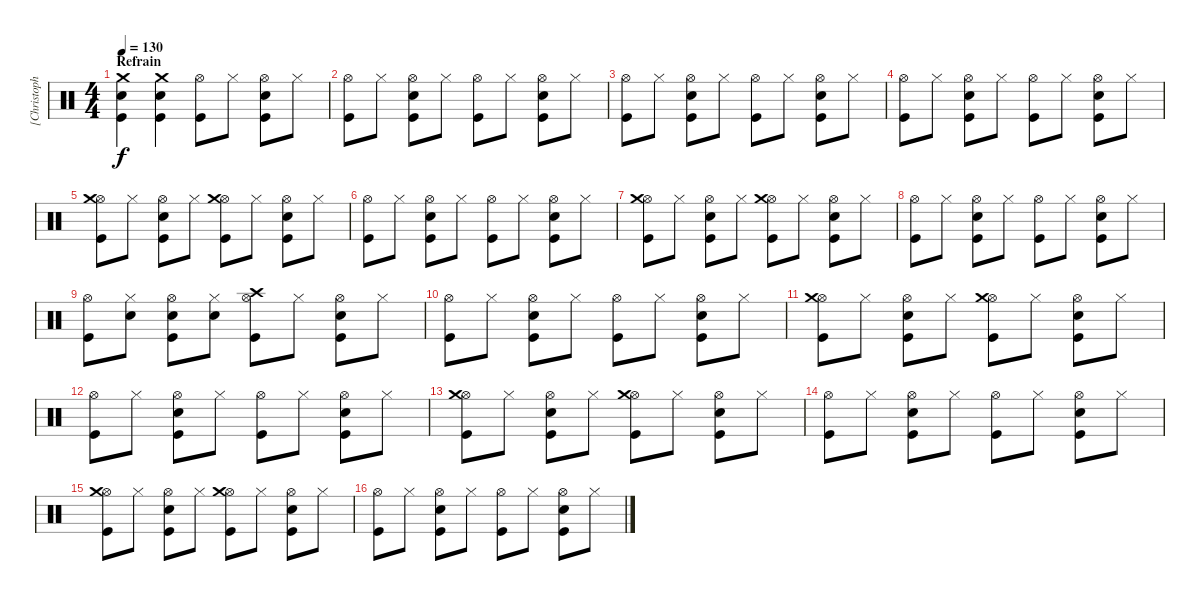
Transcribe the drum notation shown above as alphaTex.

\track ("[Christoph Schneider]  Drums" "[Christoph") {instrument percussion}
\staff {score}
\articulation defaults
\ts (4 4)
\section ("" "Refrain")
\tempo 130
\clef neutral
\ks c
("Crash medium (hit)" "Snare (hit) 2" "Kick (hit)").4{dy f} ("Crash medium (hit)" "Snare (hit) 2" "Kick (hit)").4 ("Hi-Hat (open)" "Kick (hit)").8 "Hi-Hat (closed)".8 ("Hi-Hat (open)" "Snare (hit) 2" "Kick (hit)").8 "Hi-Hat (closed)".8 |
("Hi-Hat (open)" "Kick (hit)").8 "Hi-Hat (closed)".8 ("Hi-Hat (open)" "Snare (hit) 2" "Kick (hit)").8 "Hi-Hat (closed)".8 ("Hi-Hat (open)" "Kick (hit)").8 "Hi-Hat (closed)".8 ("Hi-Hat (open)" "Snare (hit) 2" "Kick (hit)").8 "Hi-Hat (closed)".8 |
("Hi-Hat (open)" "Kick (hit)").8 "Hi-Hat (closed)".8 ("Hi-Hat (open)" "Snare (hit) 2" "Kick (hit)").8 "Hi-Hat (closed)".8 ("Hi-Hat (open)" "Kick (hit)").8 "Hi-Hat (closed)".8 ("Hi-Hat (open)" "Snare (hit) 2" "Kick (hit)").8 "Hi-Hat (closed)".8 |
("Hi-Hat (open)" "Kick (hit)").8 "Hi-Hat (closed)".8 ("Hi-Hat (open)" "Snare (hit) 2" "Kick (hit)").8 "Hi-Hat (closed)".8 ("Hi-Hat (open)" "Kick (hit)").8 "Hi-Hat (closed)".8 ("Hi-Hat (open)" "Snare (hit) 2" "Kick (hit)").8 "Hi-Hat (closed)".8 |
("Hi-Hat (open)" "Crash medium (hit)" "Kick (hit)").8 "Hi-Hat (closed)".8 ("Hi-Hat (open)" "Snare (hit) 2" "Kick (hit)").8 "Hi-Hat (closed)".8 ("Hi-Hat (open)" "Crash medium (hit)" "Kick (hit)").8 "Hi-Hat (closed)".8 ("Hi-Hat (open)" "Snare (hit) 2" "Kick (hit)").8 "Hi-Hat (closed)".8 |
("Hi-Hat (open)" "Kick (hit)").8 "Hi-Hat (closed)".8 ("Hi-Hat (open)" "Snare (hit) 2" "Kick (hit)").8 "Hi-Hat (closed)".8 ("Hi-Hat (open)" "Kick (hit)").8 "Hi-Hat (closed)".8 ("Hi-Hat (open)" "Snare (hit) 2" "Kick (hit)").8 "Hi-Hat (closed)".8 |
("Hi-Hat (open)" "Crash medium (hit)" "Kick (hit)").8 "Hi-Hat (closed)".8 ("Hi-Hat (open)" "Snare (hit) 2" "Kick (hit)").8 "Hi-Hat (closed)".8 ("Hi-Hat (open)" "Crash medium (hit)" "Kick (hit)").8 "Hi-Hat (closed)".8 ("Hi-Hat (open)" "Snare (hit) 2" "Kick (hit)").8 "Hi-Hat (closed)".8 |
("Hi-Hat (open)" "Kick (hit)").8 "Hi-Hat (closed)".8 ("Hi-Hat (open)" "Snare (hit) 2" "Kick (hit)").8 "Hi-Hat (closed)".8 ("Hi-Hat (open)" "Kick (hit)").8 "Hi-Hat (closed)".8 ("Hi-Hat (open)" "Snare (hit) 2" "Kick (hit)").8 "Hi-Hat (closed)".8 |
("Hi-Hat (open)" "Kick (hit)").8 ("Snare (hit) 2" "Hi-Hat (closed)").8 ("Hi-Hat (open)" "Snare (hit) 2" "Kick (hit)").8 ("Snare (hit) 2" "Hi-Hat (closed)").8 ("Hi-Hat (open)" "Crash high (hit)" "Kick (hit)").8 "Hi-Hat (closed)".8 ("Hi-Hat (open)" "Snare (hit) 2" "Kick (hit)").8 "Hi-Hat (closed)".8 |
("Hi-Hat (open)" "Kick (hit)").8 "Hi-Hat (closed)".8 ("Hi-Hat (open)" "Snare (hit) 2" "Kick (hit)").8 "Hi-Hat (closed)".8 ("Hi-Hat (open)" "Kick (hit)").8 "Hi-Hat (closed)".8 ("Hi-Hat (open)" "Snare (hit) 2" "Kick (hit)").8 "Hi-Hat (closed)".8 |
("Hi-Hat (open)" "Crash medium (hit)" "Kick (hit)").8 "Hi-Hat (closed)".8 ("Hi-Hat (open)" "Snare (hit) 2" "Kick (hit)").8 "Hi-Hat (closed)".8 ("Hi-Hat (open)" "Crash medium (hit)" "Kick (hit)").8 "Hi-Hat (closed)".8 ("Hi-Hat (open)" "Snare (hit) 2" "Kick (hit)").8 "Hi-Hat (closed)".8 |
("Hi-Hat (open)" "Kick (hit)").8 "Hi-Hat (closed)".8 ("Hi-Hat (open)" "Snare (hit) 2" "Kick (hit)").8 "Hi-Hat (closed)".8 ("Hi-Hat (open)" "Kick (hit)").8 "Hi-Hat (closed)".8 ("Hi-Hat (open)" "Snare (hit) 2" "Kick (hit)").8 "Hi-Hat (closed)".8 |
("Hi-Hat (open)" "Crash medium (hit)" "Kick (hit)").8 "Hi-Hat (closed)".8 ("Hi-Hat (open)" "Snare (hit) 2" "Kick (hit)").8 "Hi-Hat (closed)".8 ("Hi-Hat (open)" "Crash medium (hit)" "Kick (hit)").8 "Hi-Hat (closed)".8 ("Hi-Hat (open)" "Snare (hit) 2" "Kick (hit)").8 "Hi-Hat (closed)".8 |
("Hi-Hat (open)" "Kick (hit)").8 "Hi-Hat (closed)".8 ("Hi-Hat (open)" "Snare (hit) 2" "Kick (hit)").8 "Hi-Hat (closed)".8 ("Hi-Hat (open)" "Kick (hit)").8 "Hi-Hat (closed)".8 ("Hi-Hat (open)" "Snare (hit) 2" "Kick (hit)").8 "Hi-Hat (closed)".8 |
("Hi-Hat (open)" "Crash medium (hit)" "Kick (hit)").8 "Hi-Hat (closed)".8 ("Hi-Hat (open)" "Snare (hit) 2" "Kick (hit)").8 "Hi-Hat (closed)".8 ("Hi-Hat (open)" "Crash medium (hit)" "Kick (hit)").8 "Hi-Hat (closed)".8 ("Hi-Hat (open)" "Snare (hit) 2" "Kick (hit)").8 "Hi-Hat (closed)".8 |
("Hi-Hat (open)" "Kick (hit)").8 "Hi-Hat (closed)".8 ("Hi-Hat (open)" "Snare (hit) 2" "Kick (hit)").8 "Hi-Hat (closed)".8 ("Hi-Hat (open)" "Kick (hit)").8 "Hi-Hat (closed)".8 ("Hi-Hat (open)" "Snare (hit) 2" "Kick (hit)").8 "Hi-Hat (closed)".8
